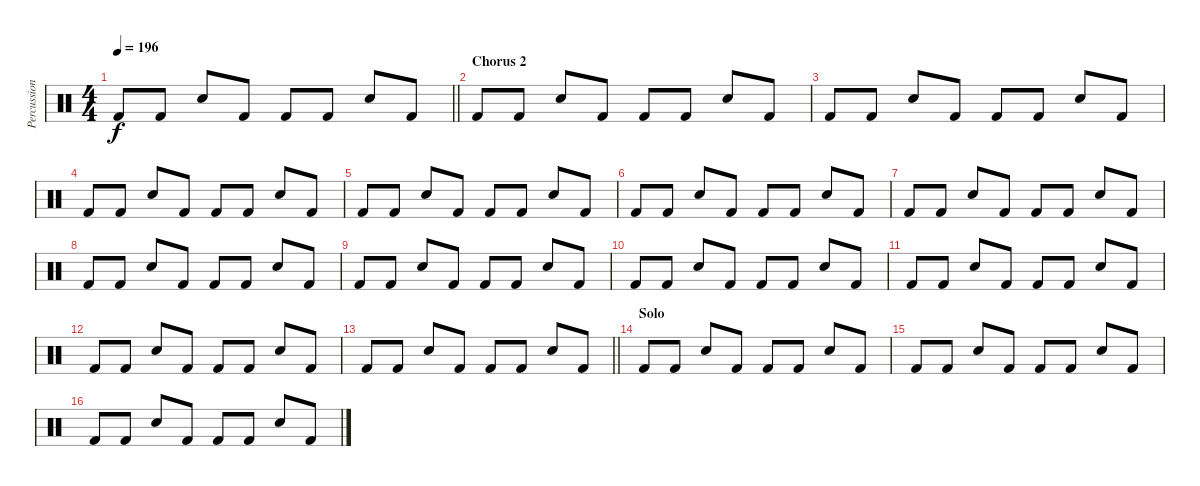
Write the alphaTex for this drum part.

\track ("Percussion" "Percussion") {instrument percussion}
\staff {score}
\articulation defaults
\ts (4 4)
\tempo 196
\clef neutral
\barLineRight lightlight
\ks c "Kick (hit) 2".8{dy f} "Kick (hit) 2".8 "Electric Snare (hit)".8 "Kick (hit) 2".8 "Kick (hit) 2".8 "Kick (hit) 2".8 "Electric Snare (hit)".8 "Kick (hit) 2".8
|
\section ("" "Chorus 2")
"Kick (hit) 2".8 "Kick (hit) 2".8 "Electric Snare (hit)".8 "Kick (hit) 2".8 "Kick (hit) 2".8 "Kick (hit) 2".8 "Electric Snare (hit)".8 "Kick (hit) 2".8 |
"Kick (hit) 2".8 "Kick (hit) 2".8 "Electric Snare (hit)".8 "Kick (hit) 2".8 "Kick (hit) 2".8 "Kick (hit) 2".8 "Electric Snare (hit)".8 "Kick (hit) 2".8 |
"Kick (hit) 2".8 "Kick (hit) 2".8 "Electric Snare (hit)".8 "Kick (hit) 2".8 "Kick (hit) 2".8 "Kick (hit) 2".8 "Electric Snare (hit)".8 "Kick (hit) 2".8 |
"Kick (hit) 2".8 "Kick (hit) 2".8 "Electric Snare (hit)".8 "Kick (hit) 2".8 "Kick (hit) 2".8 "Kick (hit) 2".8 "Electric Snare (hit)".8 "Kick (hit) 2".8 |
"Kick (hit) 2".8 "Kick (hit) 2".8 "Electric Snare (hit)".8 "Kick (hit) 2".8 "Kick (hit) 2".8 "Kick (hit) 2".8 "Electric Snare (hit)".8 "Kick (hit) 2".8 |
"Kick (hit) 2".8 "Kick (hit) 2".8 "Electric Snare (hit)".8 "Kick (hit) 2".8 "Kick (hit) 2".8 "Kick (hit) 2".8 "Electric Snare (hit)".8 "Kick (hit) 2".8 |
"Kick (hit) 2".8 "Kick (hit) 2".8 "Electric Snare (hit)".8 "Kick (hit) 2".8 "Kick (hit) 2".8 "Kick (hit) 2".8 "Electric Snare (hit)".8 "Kick (hit) 2".8 |
"Kick (hit) 2".8 "Kick (hit) 2".8 "Electric Snare (hit)".8 "Kick (hit) 2".8 "Kick (hit) 2".8 "Kick (hit) 2".8 "Electric Snare (hit)".8 "Kick (hit) 2".8 |
"Kick (hit) 2".8 "Kick (hit) 2".8 "Electric Snare (hit)".8 "Kick (hit) 2".8 "Kick (hit) 2".8 "Kick (hit) 2".8 "Electric Snare (hit)".8 "Kick (hit) 2".8 |
"Kick (hit) 2".8 "Kick (hit) 2".8 "Electric Snare (hit)".8 "Kick (hit) 2".8 "Kick (hit) 2".8 "Kick (hit) 2".8 "Electric Snare (hit)".8 "Kick (hit) 2".8 |
"Kick (hit) 2".8 "Kick (hit) 2".8 "Electric Snare (hit)".8 "Kick (hit) 2".8 "Kick (hit) 2".8 "Kick (hit) 2".8 "Electric Snare (hit)".8 "Kick (hit) 2".8 |
\barLineRight lightlight "Kick (hit) 2".8 "Kick (hit) 2".8 "Electric Snare (hit)".8 "Kick (hit) 2".8 "Kick (hit) 2".8 "Kick (hit) 2".8 "Electric Snare (hit)".8 "Kick (hit) 2".8
|
\section ("" "Solo")
"Kick (hit) 2".8 "Kick (hit) 2".8 "Electric Snare (hit)".8 "Kick (hit) 2".8 "Kick (hit) 2".8 "Kick (hit) 2".8 "Electric Snare (hit)".8 "Kick (hit) 2".8 |
"Kick (hit) 2".8 "Kick (hit) 2".8 "Electric Snare (hit)".8 "Kick (hit) 2".8 "Kick (hit) 2".8 "Kick (hit) 2".8 "Electric Snare (hit)".8 "Kick (hit) 2".8 |
"Kick (hit) 2".8 "Kick (hit) 2".8 "Electric Snare (hit)".8 "Kick (hit) 2".8 "Kick (hit) 2".8 "Kick (hit) 2".8 "Electric Snare (hit)".8 "Kick (hit) 2".8
